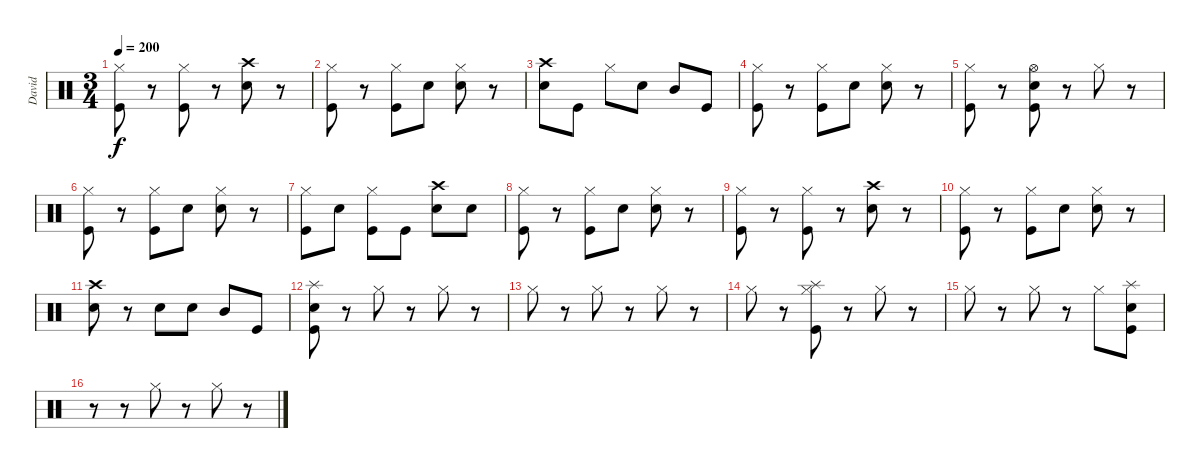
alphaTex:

\track ("David" "David") {instrument percussion}
\staff {score}
\articulation defaults
\ts (3 4)
\tempo 200
\clef neutral
\ks c
("Hi-Hat (closed)" "Kick (hit)").8{dy f} r.8 ("Hi-Hat (closed)" "Kick (hit)").8 r.8 ("Crash high (hit)" "Electric Snare (hit)").8 r.8 |
("Hi-Hat (closed)" "Kick (hit)").8 r.8 ("Hi-Hat (closed)" "Kick (hit)").8 "Electric Snare (hit)".8 ("Hi-Hat (closed)" "Electric Snare (hit)").8 r.8 |
("Crash high (hit)" "Electric Snare (hit)").8 "Kick (hit)".8 "Hi-Hat (closed)".8 "Electric Snare (hit)".8 "Mid Tom (hit)".8 "Kick (hit)".8 |
("Hi-Hat (closed)" "Kick (hit)").8 r.8 ("Hi-Hat (closed)" "Kick (hit)").8 "Electric Snare (hit)".8 ("Hi-Hat (closed)" "Electric Snare (hit)").8 r.8 |
("Hi-Hat (closed)" "Kick (hit)").8 r.8 ("Hi-Hat (open)" "Electric Snare (hit)" "Kick (hit)").8 r.8 "Hi-Hat (closed)".8 r.8 |
("Hi-Hat (closed)" "Kick (hit)").8 r.8 ("Hi-Hat (closed)" "Kick (hit)").8 "Electric Snare (hit)".8 ("Hi-Hat (closed)" "Electric Snare (hit)").8 r.8 |
("Hi-Hat (closed)" "Kick (hit)").8 "Electric Snare (hit)".8 ("Hi-Hat (closed)" "Kick (hit)").8 "Kick (hit)".8 ("Crash high (hit)" "Electric Snare (hit)").8 "Electric Snare (hit)".8 |
("Hi-Hat (closed)" "Kick (hit)").8 r.8 ("Hi-Hat (closed)" "Kick (hit)").8 "Electric Snare (hit)".8 ("Hi-Hat (closed)" "Electric Snare (hit)").8 r.8 |
("Hi-Hat (closed)" "Kick (hit)").8 r.8 ("Hi-Hat (closed)" "Kick (hit)").8 r.8 ("Crash high (hit)" "Electric Snare (hit)").8 r.8 |
("Hi-Hat (closed)" "Kick (hit)").8 r.8 ("Hi-Hat (closed)" "Kick (hit)").8 "Electric Snare (hit)".8 ("Hi-Hat (closed)" "Electric Snare (hit)").8 r.8 |
("Crash high (hit)" "Electric Snare (hit)").8 r.8 "Electric Snare (hit)".8 "Electric Snare (hit)".8 "Mid Tom (hit)".8 "Kick (hit)".8 |
("Splash (hit)" "Electric Snare (hit)" "Kick (hit)").8 r.8 "Hi-Hat (closed)".8 r.8 "Hi-Hat (closed)".8 r.8 |
"Hi-Hat (closed)".8 r.8 "Hi-Hat (closed)".8 r.8 "Hi-Hat (closed)".8 r.8 |
"Hi-Hat (closed)".8 r.8 ("Splash (hit)" "Hi-Hat (closed)" "Kick (hit)").8 r.8 "Hi-Hat (closed)".8 r.8 |
"Hi-Hat (closed)".8 r.8 "Hi-Hat (closed)".8 r.8 "Hi-Hat (closed)".8 ("Splash (hit)" "Electric Snare (hit)" "Kick (hit)").8 |
r.8 r.8 "Hi-Hat (closed)".8 r.8 "Hi-Hat (closed)".8 r.8
